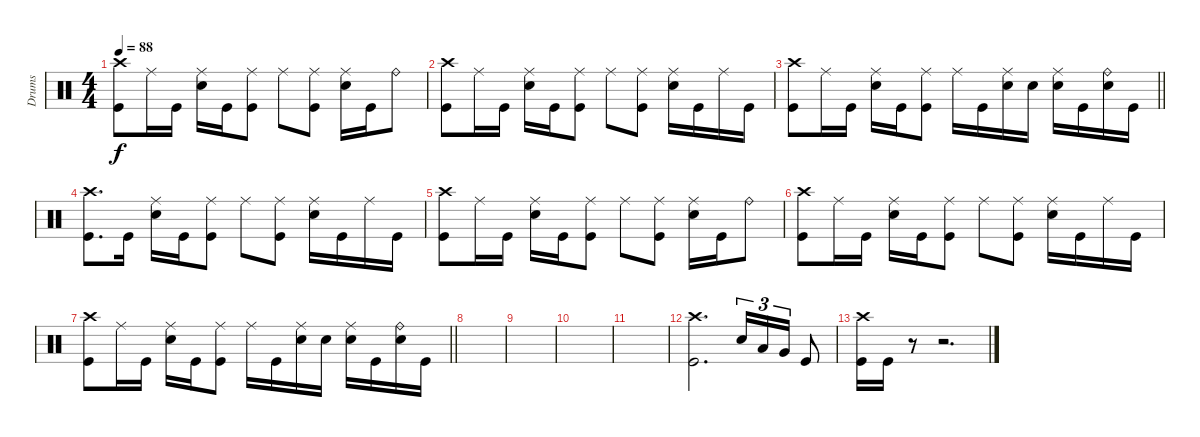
\track ("Drums" "Drums") {instrument percussion}
\staff
\articulation defaults
\ts (4 4)
\tempo 88
\clef neutral
\ks c
("Crash high (hit)" "Kick (hit)").8{dy f} "Ride (middle)".16 "Kick (hit)".16 ("Ride (middle)" "Electric Snare (hit)").16 "Kick (hit)".16 ("Ride (middle)" "Kick (hit)").8 "Ride (middle)".8 ("Ride (middle)" "Kick (hit)").8 ("Ride (middle)" "Electric Snare (hit)").16 "Kick (hit)".16 "Ride (bell)".8 |
("Crash high (hit)" "Kick (hit)").8 "Ride (middle)".16 "Kick (hit)".16 ("Ride (middle)" "Electric Snare (hit)").16 "Kick (hit)".16 ("Ride (middle)" "Kick (hit)").8 "Ride (middle)".8 ("Ride (middle)" "Kick (hit)").8 ("Ride (middle)" "Electric Snare (hit)").16 "Kick (hit)".16 "Ride (middle)".16 "Kick (hit)".16 |
\barLineRight lightlight
("Crash high (hit)" "Kick (hit)").8 "Ride (middle)".16 "Kick (hit)".16 ("Ride (middle)" "Electric Snare (hit)").16 "Kick (hit)".16 ("Ride (middle)" "Kick (hit)").8 "Ride (middle)".16 "Kick (hit)".16 ("Ride (middle)" "Electric Snare (hit)").16 "Electric Snare (hit)".16 ("Ride (middle)" "Electric Snare (hit)").16 "Kick (hit)".16 ("Ride (bell)" "Electric Snare (hit)").16 "Kick (hit)".16 |
("Crash high (hit)" "Kick (hit)").8{d} "Kick (hit)".16 ("Ride (middle)" "Electric Snare (hit)").16 "Kick (hit)".16 ("Ride (middle)" "Kick (hit)").8 "Ride (middle)".8 ("Ride (middle)" "Kick (hit)").8 ("Ride (middle)" "Electric Snare (hit)").16 "Kick (hit)".16 "Ride (middle)".16 "Kick (hit)".16 |
("Crash high (hit)" "Kick (hit)").8 "Ride (middle)".16 "Kick (hit)".16 ("Ride (middle)" "Electric Snare (hit)").16 "Kick (hit)".16 ("Ride (middle)" "Kick (hit)").8 "Ride (middle)".8 ("Ride (middle)" "Kick (hit)").8 ("Ride (middle)" "Electric Snare (hit)").16 "Kick (hit)".16 "Ride (bell)".8 |
("Crash high (hit)" "Kick (hit)").8 "Ride (middle)".16 "Kick (hit)".16 ("Ride (middle)" "Electric Snare (hit)").16 "Kick (hit)".16 ("Ride (middle)" "Kick (hit)").8 "Ride (middle)".8 ("Ride (middle)" "Kick (hit)").8 ("Ride (middle)" "Electric Snare (hit)").16 "Kick (hit)".16 "Ride (middle)".16 "Kick (hit)".16 |
\barLineRight lightlight
("Crash high (hit)" "Kick (hit)").8 "Ride (middle)".16 "Kick (hit)".16 ("Ride (middle)" "Electric Snare (hit)").16 "Kick (hit)".16 ("Ride (middle)" "Kick (hit)").8 "Ride (middle)".16 "Kick (hit)".16 ("Ride (middle)" "Electric Snare (hit)").16 "Electric Snare (hit)".16 ("Ride (middle)" "Electric Snare (hit)").16 "Kick (hit)".16 ("Ride (bell)" "Electric Snare (hit)").16 "Kick (hit)".16 |
|
|
|
|
("Crash high (hit)" "Kick (hit)").2{d} "Electric Snare (hit)".16{tu (3 2)} "Low Tom (hit)".16{tu (3 2)} "Very Low Tom (hit)".16{tu (3 2)} "Kick (hit)".8 |
("Crash high (hit)" "Kick (hit)").16 "Kick (hit)".16 r.8 r.2{d}
